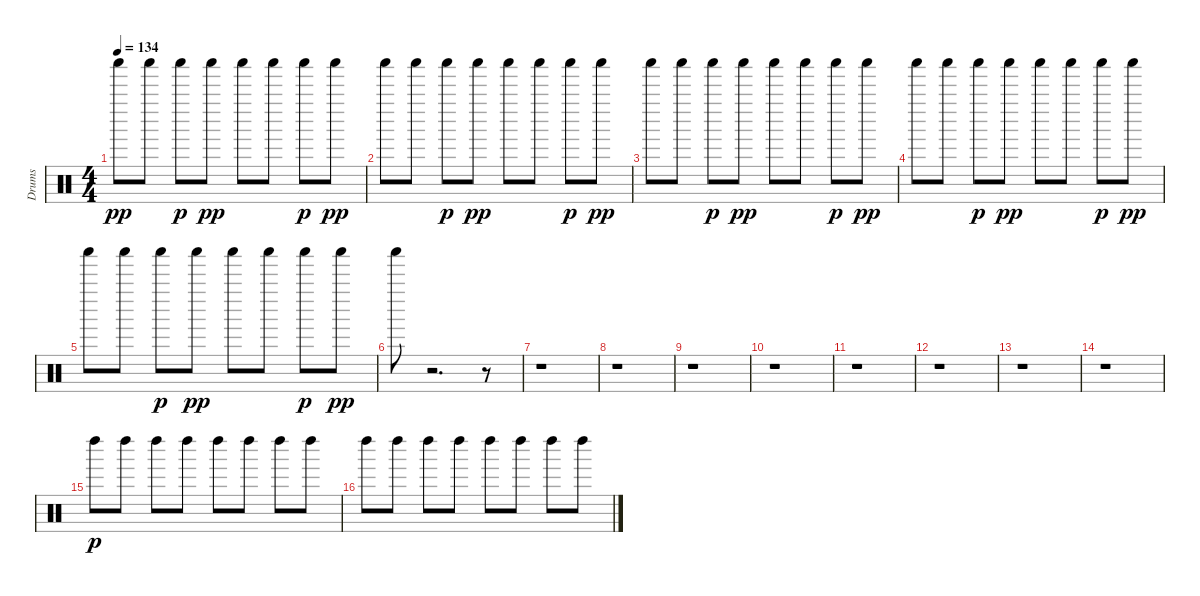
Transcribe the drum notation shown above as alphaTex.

\track ("Drums" "Drums") {instrument percussion}
\staff {score}
\articulation defaults
\ts (4 4)
\tempo 134
\clef neutral
\ks c "Shaker (hit)".8{dy pp} "Shaker (hit)".8 "Shaker (hit)".8{dy p} "Shaker (hit)".8{dy pp} "Shaker (hit)".8 "Shaker (hit)".8 "Shaker (hit)".8{dy p} "Shaker (hit)".8{dy pp}
|
"Shaker (hit)".8 "Shaker (hit)".8 "Shaker (hit)".8{dy p} "Shaker (hit)".8{dy pp} "Shaker (hit)".8 "Shaker (hit)".8 "Shaker (hit)".8{dy p} "Shaker (hit)".8{dy pp} |
"Shaker (hit)".8 "Shaker (hit)".8 "Shaker (hit)".8{dy p} "Shaker (hit)".8{dy pp} "Shaker (hit)".8 "Shaker (hit)".8 "Shaker (hit)".8{dy p} "Shaker (hit)".8{dy pp} |
"Shaker (hit)".8 "Shaker (hit)".8 "Shaker (hit)".8{dy p} "Shaker (hit)".8{dy pp} "Shaker (hit)".8 "Shaker (hit)".8 "Shaker (hit)".8{dy p} "Shaker (hit)".8{dy pp} |
"Shaker (hit)".8 "Shaker (hit)".8 "Shaker (hit)".8{dy p} "Shaker (hit)".8{dy pp} "Shaker (hit)".8 "Shaker (hit)".8 "Shaker (hit)".8{dy p} "Shaker (hit)".8{dy pp} |
"Shaker (hit)".8 r.2{d} r.8 |
r.1 |
r.1 |
r.1 |
r.1 |
r.1 |
r.1 |
r.1 |
r.1 |
"Left Maraca (hit)".8{dy p} "Left Maraca (hit)".8 "Left Maraca (hit)".8 "Left Maraca (hit)".8 "Left Maraca (hit)".8 "Left Maraca (hit)".8 "Left Maraca (hit)".8 "Left Maraca (hit)".8 |
"Left Maraca (hit)".8 "Left Maraca (hit)".8 "Left Maraca (hit)".8 "Left Maraca (hit)".8 "Left Maraca (hit)".8 "Left Maraca (hit)".8 "Left Maraca (hit)".8 "Left Maraca (hit)".8
